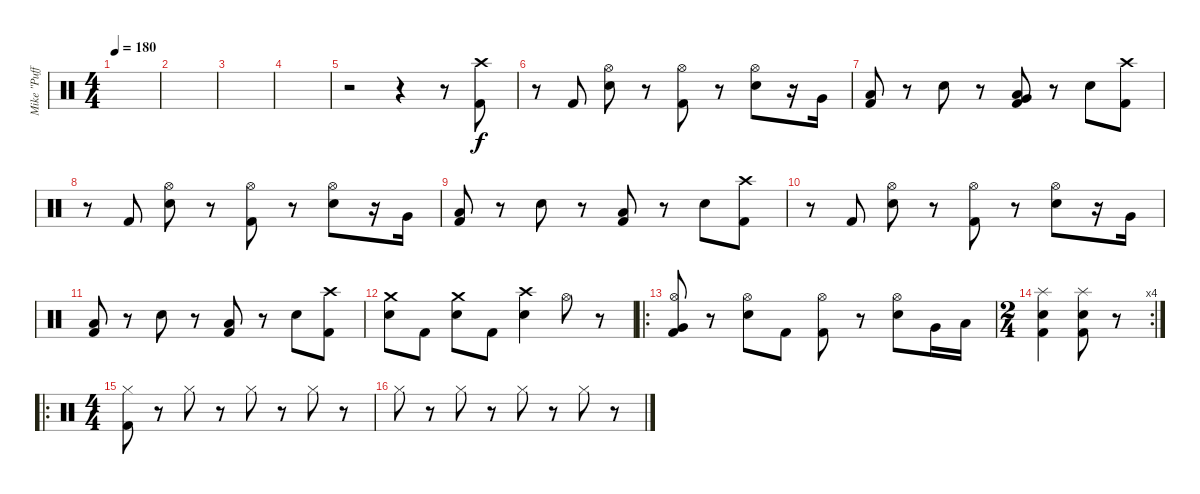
\track ("Mike \"Puffy\" Bordin" "Mike \"Puff") {instrument percussion}
\staff {score}
\articulation defaults
\ts (4 4)
\tempo 180
\clef neutral
\ks c
|
|
|
|
r.2 r.4 r.8 ("Crash high (hit)" "Kick (hit) 2").8 |
r.8 "Kick (hit) 2".8 ("Hi-Hat (open)" "Electric Snare (hit)").8 r.8 ("Hi-Hat (open)" "Kick (hit) 2").8 r.8 ("Hi-Hat (open)" "Electric Snare (hit)").8 r.16 "Very Low Tom (hit)".16 |
("Low Floor Tom (hit)" "Kick (hit) 2").8 r.8 "Electric Snare (hit)".8 r.8 ("Low Floor Tom (hit)" "Very Low Tom (hit)" "Kick (hit) 2").8 r.8 "Electric Snare (hit)".8 ("Crash high (hit)" "Kick (hit) 2").8 |
r.8 "Kick (hit) 2".8 ("Hi-Hat (open)" "Electric Snare (hit)").8 r.8 ("Hi-Hat (open)" "Kick (hit) 2").8 r.8 ("Hi-Hat (open)" "Electric Snare (hit)").8 r.16 "Very Low Tom (hit)".16 |
("Low Floor Tom (hit)" "Kick (hit) 2").8 r.8 "Electric Snare (hit)".8 r.8 ("Low Floor Tom (hit)" "Kick (hit) 2").8 r.8 "Electric Snare (hit)".8 ("Crash high (hit)" "Kick (hit) 2").8 |
r.8 "Kick (hit) 2".8 ("Hi-Hat (open)" "Electric Snare (hit)").8 r.8 ("Hi-Hat (open)" "Kick (hit) 2").8 r.8 ("Hi-Hat (open)" "Electric Snare (hit)").8 r.16 "Very Low Tom (hit)".16 |
("Low Floor Tom (hit)" "Kick (hit) 2").8 r.8 "Electric Snare (hit)".8 r.8 ("Low Floor Tom (hit)" "Kick (hit) 2").8 r.8 "Electric Snare (hit)".8 ("Crash high (hit)" "Kick (hit) 2").8 |
("Crash medium (hit)" "Electric Snare (hit)").8 "Kick (hit) 2".8 ("Crash medium (hit)" "Electric Snare (hit)").8 "Kick (hit) 2".8 ("Crash high (hit)" "Electric Snare (hit)").4 "Hi-Hat (open)".8 r.8 |
\ro
("Hi-Hat (open)" "Very Low Tom (hit)" "Kick (hit) 2").8 r.8 ("Hi-Hat (open)" "Electric Snare (hit)").8 "Kick (hit) 2".8 ("Hi-Hat (open)" "Kick (hit) 2").8 r.8 ("Hi-Hat (open)" "Electric Snare (hit)").8 "Very Low Tom (hit)".16 "Low Tom (hit)".16 |
\rc 4
\ts (2 4)
("Splash (hit)" "Electric Snare (hit)" "Kick (hit) 2").4 ("Splash (hit)" "Electric Snare (hit)" "Kick (hit) 2").8 r.8 |
\ro
\ts (4 4)
("Hi-Hat (closed)" "Kick (hit) 2").8 r.8 "Hi-Hat (closed)".8 r.8 "Hi-Hat (closed)".8 r.8 "Hi-Hat (closed)".8 r.8 |
"Hi-Hat (closed)".8 r.8 "Hi-Hat (closed)".8 r.8 "Hi-Hat (closed)".8 r.8 "Hi-Hat (closed)".8 r.8
